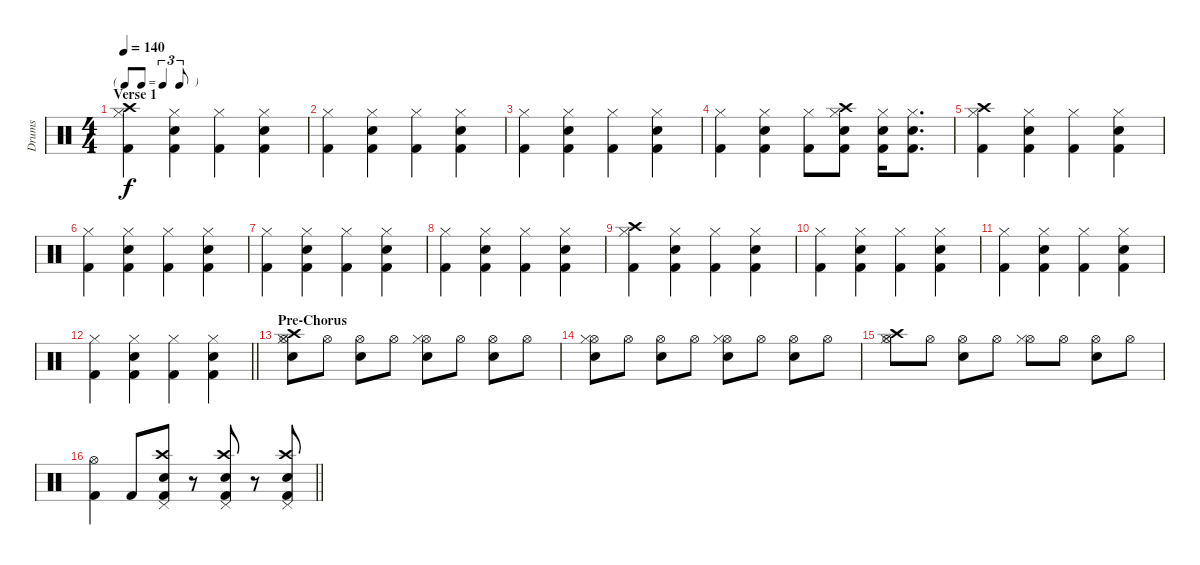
\track ("Drums" "Drums") {instrument percussion}
\staff {score}
\articulation defaults
\ts (4 4)
\tf triplet8th
\section ("" "Verse 1")
\tempo 140
\clef neutral
\ks c
("Hi-Hat (closed)" "Kick (hit) 2" "Crash high (hit)").4{dy f} ("Hi-Hat (closed)" "Kick (hit) 2" "Snare (hit) 2").4 ("Hi-Hat (closed)" "Kick (hit) 2").4 ("Hi-Hat (closed)" "Kick (hit) 2" "Snare (hit) 2").4 |
("Hi-Hat (closed)" "Kick (hit) 2").4 ("Hi-Hat (closed)" "Kick (hit) 2" "Snare (hit) 2").4 ("Hi-Hat (closed)" "Kick (hit) 2").4 ("Hi-Hat (closed)" "Kick (hit) 2" "Snare (hit) 2").4 |
("Hi-Hat (closed)" "Kick (hit) 2").4 ("Hi-Hat (closed)" "Kick (hit) 2" "Snare (hit) 2").4 ("Hi-Hat (closed)" "Kick (hit) 2").4 ("Hi-Hat (closed)" "Kick (hit) 2" "Snare (hit) 2").4 |
("Hi-Hat (closed)" "Kick (hit) 2").4 ("Hi-Hat (closed)" "Kick (hit) 2" "Snare (hit) 2").4 ("Hi-Hat (closed)" "Kick (hit) 2").8 ("Hi-Hat (closed)" "Kick (hit) 2" "Snare (hit) 2" "Crash high (hit)").8 ("Hi-Hat (closed)" "Kick (hit) 2" "Snare (hit) 2").16 ("Hi-Hat (closed)" "Kick (hit) 2" "Snare (hit) 2").8{d} |
("Hi-Hat (closed)" "Kick (hit) 2" "Crash high (hit)").4 ("Hi-Hat (closed)" "Kick (hit) 2" "Snare (hit) 2").4 ("Hi-Hat (closed)" "Kick (hit) 2").4 ("Hi-Hat (closed)" "Kick (hit) 2" "Snare (hit) 2").4 |
("Hi-Hat (closed)" "Kick (hit) 2").4 ("Hi-Hat (closed)" "Kick (hit) 2" "Snare (hit) 2").4 ("Hi-Hat (closed)" "Kick (hit) 2").4 ("Hi-Hat (closed)" "Kick (hit) 2" "Snare (hit) 2").4 |
("Hi-Hat (closed)" "Kick (hit) 2").4 ("Hi-Hat (closed)" "Kick (hit) 2" "Snare (hit) 2").4 ("Hi-Hat (closed)" "Kick (hit) 2").4 ("Hi-Hat (closed)" "Kick (hit) 2" "Snare (hit) 2").4 |
("Hi-Hat (closed)" "Kick (hit) 2").4 ("Hi-Hat (closed)" "Kick (hit) 2" "Snare (hit) 2").4 ("Hi-Hat (closed)" "Kick (hit) 2").4 ("Hi-Hat (closed)" "Kick (hit) 2" "Snare (hit) 2").4 |
("Hi-Hat (closed)" "Kick (hit) 2" "Crash high (hit)").4 ("Hi-Hat (closed)" "Kick (hit) 2" "Snare (hit) 2").4 ("Hi-Hat (closed)" "Kick (hit) 2").4 ("Hi-Hat (closed)" "Kick (hit) 2" "Snare (hit) 2").4 |
("Hi-Hat (closed)" "Kick (hit) 2").4 ("Hi-Hat (closed)" "Kick (hit) 2" "Snare (hit) 2").4 ("Hi-Hat (closed)" "Kick (hit) 2").4 ("Hi-Hat (closed)" "Kick (hit) 2" "Snare (hit) 2").4 |
("Hi-Hat (closed)" "Kick (hit) 2").4 ("Hi-Hat (closed)" "Kick (hit) 2" "Snare (hit) 2").4 ("Hi-Hat (closed)" "Kick (hit) 2").4 ("Hi-Hat (closed)" "Kick (hit) 2" "Snare (hit) 2").4 |
\barLineRight lightlight
("Hi-Hat (closed)" "Kick (hit) 2").4 ("Hi-Hat (closed)" "Kick (hit) 2" "Snare (hit) 2").4 ("Hi-Hat (closed)" "Kick (hit) 2").4 ("Hi-Hat (closed)" "Kick (hit) 2" "Snare (hit) 2").4 |
\section ("" "Pre-Chorus")
("Hi-Hat (open)" "Snare (hit) 2" "Hi-Hat (closed)" "Crash high (hit)").8 "Hi-Hat (open)".8 ("Hi-Hat (open)" "Snare (hit) 2").8 "Hi-Hat (open)".8 ("Hi-Hat (open)" "Snare (hit) 2" "Hi-Hat (closed)").8 "Hi-Hat (open)".8 ("Hi-Hat (open)" "Snare (hit) 2").8 "Hi-Hat (open)".8 |
("Hi-Hat (open)" "Snare (hit) 2" "Hi-Hat (closed)").8 "Hi-Hat (open)".8 ("Hi-Hat (open)" "Snare (hit) 2").8 "Hi-Hat (open)".8 ("Hi-Hat (open)" "Snare (hit) 2" "Hi-Hat (closed)").8 "Hi-Hat (open)".8 ("Hi-Hat (open)" "Snare (hit) 2").8 "Hi-Hat (open)".8 |
("Hi-Hat (open)" "Hi-Hat (closed)" "Crash high (hit)").8 "Hi-Hat (open)".8 ("Hi-Hat (open)" "Snare (hit) 2").8 "Hi-Hat (open)".8 ("Hi-Hat (open)" "Hi-Hat (closed)").8 "Hi-Hat (open)".8 ("Hi-Hat (open)" "Snare (hit) 2").8 "Hi-Hat (open)".8 |
\barLineRight lightlight
("Hi-Hat (open)" "Kick (hit) 2").4 "Kick (hit) 2".8 ("Pedal Hi-Hat (hit)" "Kick (hit) 2" "Snare (hit) 2" "Crash high (hit)").8 r.8 ("Pedal Hi-Hat (hit)" "Kick (hit) 2" "Snare (hit) 2" "Crash high (hit)").8 r.8 ("Pedal Hi-Hat (hit)" "Kick (hit) 2" "Snare (hit) 2" "Crash high (hit)").8
